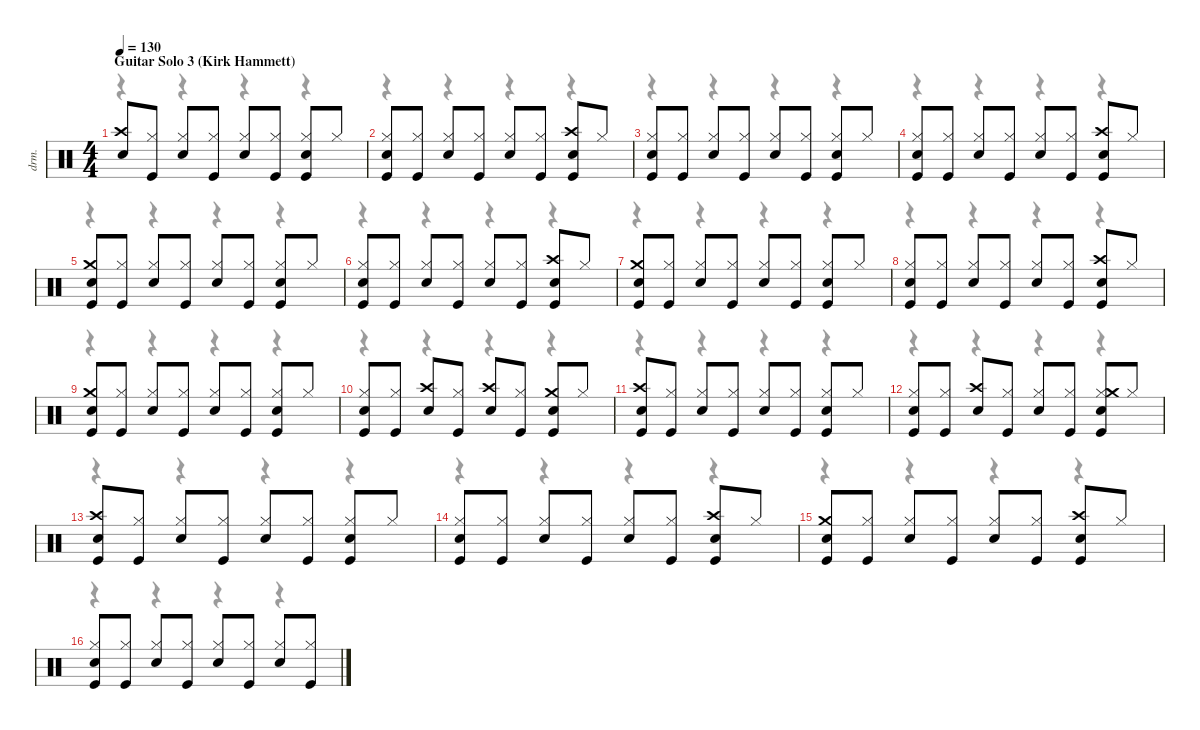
\defaultSystemsLayout 4
\hideDynamics
\bracketExtendMode nobrackets
\track ("Lars Ulrich - Drums" "drm.") {instrument percussion}
\staff {score}
\articulation defaults
\voice
\ts (4 4)
\beaming (8 2 2 2 2)
\section ("" "Guitar Solo 3 (Kirk Hammett)")
\tempo 130
\clef neutral
\ks c
("Crash high (hit)" "Snare (hit) 2").8{dy f} ("Hi-Hat (closed)" "Kick (hit)").8 ("Hi-Hat (closed)" "Snare (hit) 2").8 ("Hi-Hat (closed)" "Kick (hit)").8 ("Hi-Hat (closed)" "Snare (hit) 2").8 ("Hi-Hat (closed)" "Kick (hit)").8 ("Hi-Hat (closed)" "Snare (hit) 2" "Kick (hit)").8 "Hi-Hat (closed)".8 |
("Hi-Hat (closed)" "Snare (hit) 2" "Kick (hit)").8 ("Hi-Hat (closed)" "Kick (hit)").8 ("Hi-Hat (closed)" "Snare (hit) 2").8 ("Hi-Hat (closed)" "Kick (hit)").8 ("Hi-Hat (closed)" "Snare (hit) 2").8 ("Hi-Hat (closed)" "Kick (hit)").8 ("Crash high (hit)" "Snare (hit) 2" "Kick (hit)").8 "Hi-Hat (closed)".8 |
("Hi-Hat (closed)" "Snare (hit) 2" "Kick (hit)").8 ("Hi-Hat (closed)" "Kick (hit)").8 ("Hi-Hat (closed)" "Snare (hit) 2").8 ("Hi-Hat (closed)" "Kick (hit)").8 ("Hi-Hat (closed)" "Snare (hit) 2").8 ("Hi-Hat (closed)" "Kick (hit)").8 ("Hi-Hat (closed)" "Snare (hit) 2" "Kick (hit)").8 "Hi-Hat (closed)".8 |
("Hi-Hat (closed)" "Snare (hit) 2" "Kick (hit)").8 ("Hi-Hat (closed)" "Kick (hit)").8 ("Hi-Hat (closed)" "Snare (hit) 2").8 ("Hi-Hat (closed)" "Kick (hit)").8 ("Hi-Hat (closed)" "Snare (hit) 2").8 ("Hi-Hat (closed)" "Kick (hit)").8 ("Crash high (hit)" "Snare (hit) 2" "Kick (hit)").8 "Hi-Hat (closed)".8 |
("Crash medium (hit)" "Snare (hit) 2" "Kick (hit)").8 ("Hi-Hat (closed)" "Kick (hit)").8 ("Hi-Hat (closed)" "Snare (hit) 2").8 ("Hi-Hat (closed)" "Kick (hit)").8 ("Hi-Hat (closed)" "Snare (hit) 2").8 ("Hi-Hat (closed)" "Kick (hit)").8 ("Hi-Hat (closed)" "Snare (hit) 2" "Kick (hit)").8 "Hi-Hat (closed)".8 |
("Hi-Hat (closed)" "Snare (hit) 2" "Kick (hit)").8 ("Hi-Hat (closed)" "Kick (hit)").8 ("Hi-Hat (closed)" "Snare (hit) 2").8 ("Hi-Hat (closed)" "Kick (hit)").8 ("Hi-Hat (closed)" "Snare (hit) 2").8 ("Hi-Hat (closed)" "Kick (hit)").8 ("Crash high (hit)" "Snare (hit) 2" "Kick (hit)").8 "Hi-Hat (closed)".8 |
("Crash medium (hit)" "Snare (hit) 2" "Kick (hit)").8 ("Hi-Hat (closed)" "Kick (hit)").8 ("Hi-Hat (closed)" "Snare (hit) 2").8 ("Hi-Hat (closed)" "Kick (hit)").8 ("Hi-Hat (closed)" "Snare (hit) 2").8 ("Hi-Hat (closed)" "Kick (hit)").8 ("Hi-Hat (closed)" "Snare (hit) 2" "Kick (hit)").8 "Hi-Hat (closed)".8 |
("Hi-Hat (closed)" "Snare (hit) 2" "Kick (hit)").8 ("Hi-Hat (closed)" "Kick (hit)").8 ("Hi-Hat (closed)" "Snare (hit) 2").8 ("Hi-Hat (closed)" "Kick (hit)").8 ("Hi-Hat (closed)" "Snare (hit) 2").8 ("Hi-Hat (closed)" "Kick (hit)").8 ("Crash high (hit)" "Snare (hit) 2" "Kick (hit)").8 "Hi-Hat (closed)".8 |
("Crash medium (hit)" "Snare (hit) 2" "Kick (hit)").8 ("Hi-Hat (closed)" "Kick (hit)").8 ("Hi-Hat (closed)" "Snare (hit) 2").8 ("Hi-Hat (closed)" "Kick (hit)").8 ("Hi-Hat (closed)" "Snare (hit) 2").8 ("Hi-Hat (closed)" "Kick (hit)").8 ("Hi-Hat (closed)" "Snare (hit) 2" "Kick (hit)").8 "Hi-Hat (closed)".8 |
("Hi-Hat (closed)" "Snare (hit) 2" "Kick (hit)").8 ("Hi-Hat (closed)" "Kick (hit)").8 ("Crash high (hit)" "Snare (hit) 2").8 ("Hi-Hat (closed)" "Kick (hit)").8 ("Crash high (hit)" "Snare (hit) 2").8 ("Hi-Hat (closed)" "Kick (hit)").8 ("Crash medium (hit)" "Snare (hit) 2" "Kick (hit)").8 "Hi-Hat (closed)".8 |
("Crash high (hit)" "Snare (hit) 2" "Kick (hit)").8 ("Hi-Hat (closed)" "Kick (hit)").8 ("Hi-Hat (closed)" "Snare (hit) 2").8 ("Hi-Hat (closed)" "Kick (hit)").8 ("Hi-Hat (closed)" "Snare (hit) 2").8 ("Hi-Hat (closed)" "Kick (hit)").8 ("Hi-Hat (closed)" "Snare (hit) 2" "Kick (hit)").8 "Hi-Hat (closed)".8 |
("Hi-Hat (closed)" "Snare (hit) 2" "Kick (hit)").8 ("Hi-Hat (closed)" "Kick (hit)").8 ("Crash high (hit)" "Snare (hit) 2").8 ("Hi-Hat (closed)" "Kick (hit)").8 ("Hi-Hat (closed)" "Snare (hit) 2").8 ("Hi-Hat (closed)" "Kick (hit)").8 ("Hi-Hat (closed)" "Crash medium (hit)" "Snare (hit) 2" "Kick (hit)").8 "Hi-Hat (closed)".8 |
("Crash high (hit)" "Snare (hit) 2" "Kick (hit)").8 ("Hi-Hat (closed)" "Kick (hit)").8 ("Hi-Hat (closed)" "Snare (hit) 2").8 ("Hi-Hat (closed)" "Kick (hit)").8 ("Hi-Hat (closed)" "Snare (hit) 2").8 ("Hi-Hat (closed)" "Kick (hit)").8 ("Hi-Hat (closed)" "Snare (hit) 2" "Kick (hit)").8 "Hi-Hat (closed)".8 |
("Hi-Hat (closed)" "Snare (hit) 2" "Kick (hit)").8 ("Hi-Hat (closed)" "Kick (hit)").8 ("Hi-Hat (closed)" "Snare (hit) 2").8 ("Hi-Hat (closed)" "Kick (hit)").8 ("Hi-Hat (closed)" "Snare (hit) 2").8 ("Hi-Hat (closed)" "Kick (hit)").8 ("Crash high (hit)" "Snare (hit) 2" "Kick (hit)").8 "Hi-Hat (closed)".8 |
("Crash medium (hit)" "Snare (hit) 2" "Kick (hit)").8 ("Hi-Hat (closed)" "Kick (hit)").8 ("Hi-Hat (closed)" "Snare (hit) 2").8 ("Hi-Hat (closed)" "Kick (hit)").8 ("Hi-Hat (closed)" "Snare (hit) 2").8 ("Hi-Hat (closed)" "Kick (hit)").8 ("Crash high (hit)" "Snare (hit) 2" "Kick (hit)").8 "Hi-Hat (closed)".8 |
("Hi-Hat (closed)" "Snare (hit) 2" "Kick (hit)").8 ("Hi-Hat (closed)" "Kick (hit)").8 ("Hi-Hat (closed)" "Snare (hit) 2").8 ("Hi-Hat (closed)" "Kick (hit)").8 ("Hi-Hat (closed)" "Snare (hit) 2").8 ("Hi-Hat (closed)" "Kick (hit)").8 ("Hi-Hat (closed)" "Snare (hit) 2").8 ("Hi-Hat (closed)" "Kick (hit)").8
\voice
\clef neutral
\ottava regular
\simile none
\ks c
r.4{dy mf} r.4 r.4 r.4 |
r.4 r.4 r.4 r.4 |
r.4 r.4 r.4 r.4 |
r.4 r.4 r.4 r.4 |
r.4 r.4 r.4 r.4 |
r.4 r.4 r.4 r.4 |
r.4 r.4 r.4 r.4 |
r.4 r.4 r.4 r.4 |
r.4 r.4 r.4 r.4 |
r.4 r.4 r.4 r.4 |
r.4 r.4 r.4 r.4 |
r.4 r.4 r.4 r.4 |
r.4 r.4 r.4 r.4 |
r.4 r.4 r.4 r.4 |
r.4 r.4 r.4 r.4 |
r.4 r.4 r.4 r.4
